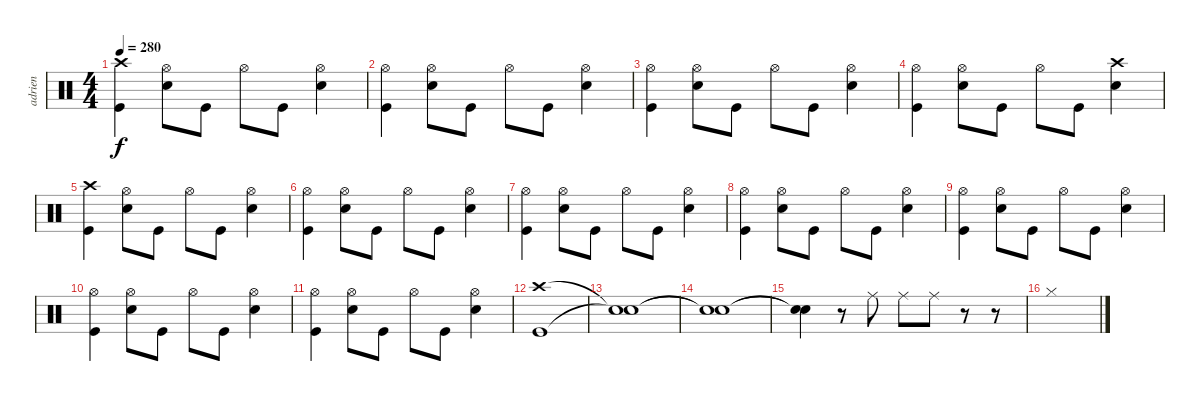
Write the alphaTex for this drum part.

\track ("adrien" "adrien") {instrument percussion}
\staff {score}
\articulation defaults
\ts (4 4)
\tempo 280
\clef neutral
\ks c
("Crash high (hit)" "Kick (hit)").4{dy f} ("Hi-Hat (open)" "Snare (hit) 2").8 "Kick (hit)".8 "Hi-Hat (open)".8 "Kick (hit)".8 ("Hi-Hat (open)" "Snare (hit) 2").4 |
("Hi-Hat (open)" "Kick (hit)").4 ("Hi-Hat (open)" "Snare (hit) 2").8 "Kick (hit)".8 "Hi-Hat (open)".8 "Kick (hit)".8 ("Hi-Hat (open)" "Snare (hit) 2").4 |
("Hi-Hat (open)" "Kick (hit)").4 ("Hi-Hat (open)" "Snare (hit) 2").8 "Kick (hit)".8 "Hi-Hat (open)".8 "Kick (hit)".8 ("Hi-Hat (open)" "Snare (hit) 2").4 |
("Hi-Hat (open)" "Kick (hit)").4 ("Hi-Hat (open)" "Snare (hit) 2").8 "Kick (hit)".8 "Hi-Hat (open)".8 "Kick (hit)".8 ("Crash high (hit)" "Snare (hit) 2").4 |
("Crash high (hit)" "Kick (hit)").4 ("Hi-Hat (open)" "Snare (hit) 2").8 "Kick (hit)".8 "Hi-Hat (open)".8 "Kick (hit)".8 ("Hi-Hat (open)" "Snare (hit) 2").4 |
("Hi-Hat (open)" "Kick (hit)").4 ("Hi-Hat (open)" "Snare (hit) 2").8 "Kick (hit)".8 "Hi-Hat (open)".8 "Kick (hit)".8 ("Hi-Hat (open)" "Snare (hit) 2").4 |
("Hi-Hat (open)" "Kick (hit)").4 ("Hi-Hat (open)" "Snare (hit) 2").8 "Kick (hit)".8 "Hi-Hat (open)".8 "Kick (hit)".8 ("Hi-Hat (open)" "Snare (hit) 2").4 |
("Hi-Hat (open)" "Kick (hit)").4 ("Hi-Hat (open)" "Snare (hit) 2").8 "Kick (hit)".8 "Hi-Hat (open)".8 "Kick (hit)".8 ("Hi-Hat (open)" "Snare (hit) 2").4 |
("Hi-Hat (open)" "Kick (hit)").4 ("Hi-Hat (open)" "Snare (hit) 2").8 "Kick (hit)".8 "Hi-Hat (open)".8 "Kick (hit)".8 ("Hi-Hat (open)" "Snare (hit) 2").4 |
("Hi-Hat (open)" "Kick (hit)").4 ("Hi-Hat (open)" "Snare (hit) 2").8 "Kick (hit)".8 "Hi-Hat (open)".8 "Kick (hit)".8 ("Hi-Hat (open)" "Snare (hit) 2").4 |
("Hi-Hat (open)" "Kick (hit)").4 ("Hi-Hat (open)" "Snare (hit) 2").8 "Kick (hit)".8 "Hi-Hat (open)".8 "Kick (hit)".8 ("Hi-Hat (open)" "Snare (hit) 2").4 |
("Crash high (hit)" "Kick (hit)").1 |
("Snare (hit)"{t} "Snare (hit)"{t}).1 |
("Snare (hit)"{t} "Snare (hit)"{t}).1 |
("Snare (hit)"{t} "Snare (hit)"{t}).4 r.8 "Ride (middle)".8 "Ride (middle)".8 "Ride (middle)".8 r.8 r.8 |
"Hi-Hat (closed)".1
